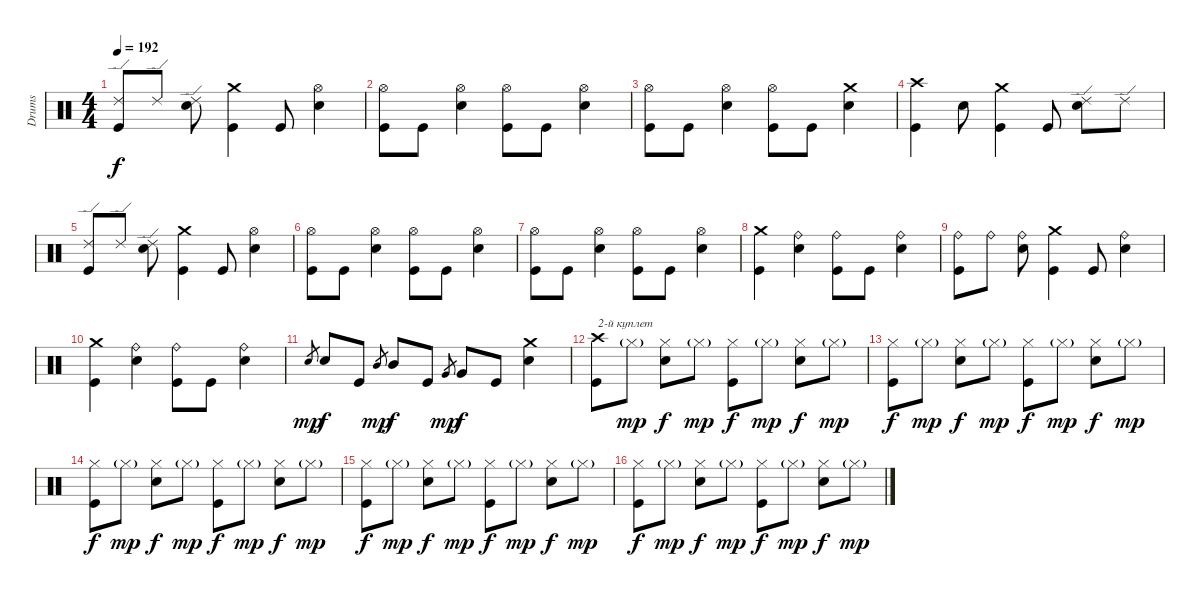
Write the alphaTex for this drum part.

\track ("Drums" "Drums") {instrument percussion}
\staff {score}
\articulation defaults
\ts (4 4)
\tempo 192
\clef neutral
\ks c
("Ride (edge) 2" "Kick (hit)").8{dy f} "Ride (edge) 2".8 ("Ride (edge) 2" "Electric Snare (hit)").8 ("Crash medium (hit)" "Kick (hit)").4 "Kick (hit)".8 ("Hi-Hat (open)" "Electric Snare (hit)").4 |
("Hi-Hat (open)" "Kick (hit)").8 "Kick (hit)".8 ("Hi-Hat (open)" "Electric Snare (hit)").4 ("Hi-Hat (open)" "Kick (hit)").8 "Kick (hit)".8 ("Hi-Hat (open)" "Electric Snare (hit)").4 |
("Hi-Hat (open)" "Kick (hit)").8 "Kick (hit)".8 ("Hi-Hat (open)" "Electric Snare (hit)").4 ("Hi-Hat (open)" "Kick (hit)").8 "Kick (hit)".8 ("Crash medium (hit)" "Electric Snare (hit)").4 |
("Crash high (hit)" "Kick (hit)").4 "Electric Snare (hit)".8 ("Crash medium (hit)" "Kick (hit)").4 "Kick (hit)".8 ("Ride (edge) 2" "Electric Snare (hit)").8 "Ride (edge) 2".8 |
("Ride (edge) 2" "Kick (hit)").8 "Ride (edge) 2".8 ("Ride (edge) 2" "Electric Snare (hit)").8 ("Crash medium (hit)" "Kick (hit)").4 "Kick (hit)".8 ("Hi-Hat (open)" "Electric Snare (hit)").4 |
("Hi-Hat (open)" "Kick (hit)").8 "Kick (hit)".8 ("Hi-Hat (open)" "Electric Snare (hit)").4 ("Hi-Hat (open)" "Kick (hit)").8 "Kick (hit)".8 ("Hi-Hat (open)" "Electric Snare (hit)").4 |
("Hi-Hat (open)" "Kick (hit)").8 "Kick (hit)".8 ("Hi-Hat (open)" "Electric Snare (hit)").4 ("Hi-Hat (open)" "Kick (hit)").8 "Kick (hit)".8 ("Hi-Hat (open)" "Electric Snare (hit)").4 |
("Crash medium (hit)" "Kick (hit)").4 ("Ride (bell)" "Electric Snare (hit)").4 ("Ride (bell)" "Kick (hit)").8 "Kick (hit)".8 ("Ride (bell)" "Electric Snare (hit)").4 |
("Ride (bell)" "Kick (hit)").8 "Ride (bell)".8 ("Ride (bell)" "Electric Snare (hit)").8 ("Crash medium (hit)" "Kick (hit)").4 "Kick (hit)".8 ("Ride (bell)" "Electric Snare (hit)").4 |
("Crash medium (hit)" "Kick (hit)").4 ("Ride (bell)" "Electric Snare (hit)").4 ("Ride (bell)" "Kick (hit)").8 "Kick (hit)".8 ("Ride (bell)" "Electric Snare (hit)").4 |
"Electric Snare (hit)".8{gr dy mp} "Electric Snare (hit)".8{dy f} "Kick (hit)".8 "Mid Tom (hit)".8{gr dy mp} "Mid Tom (hit)".8{dy f} "Kick (hit)".8 "Very Low Tom (hit)".8{gr dy mp} "Very Low Tom (hit)".8{dy f} "Kick (hit)".8 ("Crash medium (hit)" "Electric Snare (hit)").4 |
("Crash high (hit)" "Kick (hit)").8{txt "2-й куплет"} "Hi-Hat (closed)"{g}.8{dy mp} ("Hi-Hat (closed)" "Electric Snare (hit)").8{dy f} "Hi-Hat (closed)"{g}.8{dy mp} ("Hi-Hat (closed)" "Kick (hit)").8{dy f} "Hi-Hat (closed)"{g}.8{dy mp} ("Hi-Hat (closed)" "Electric Snare (hit)").8{dy f} "Hi-Hat (closed)"{g}.8{dy mp} |
("Hi-Hat (closed)" "Kick (hit)").8{dy f} "Hi-Hat (closed)"{g}.8{dy mp} ("Hi-Hat (closed)" "Electric Snare (hit)").8{dy f} "Hi-Hat (closed)"{g}.8{dy mp} ("Hi-Hat (closed)" "Kick (hit)").8{dy f} "Hi-Hat (closed)"{g}.8{dy mp} ("Hi-Hat (closed)" "Electric Snare (hit)").8{dy f} "Hi-Hat (closed)"{g}.8{dy mp} |
("Hi-Hat (closed)" "Kick (hit)").8{dy f} "Hi-Hat (closed)"{g}.8{dy mp} ("Hi-Hat (closed)" "Electric Snare (hit)").8{dy f} "Hi-Hat (closed)"{g}.8{dy mp} ("Hi-Hat (closed)" "Kick (hit)").8{dy f} "Hi-Hat (closed)"{g}.8{dy mp} ("Hi-Hat (closed)" "Electric Snare (hit)").8{dy f} "Hi-Hat (closed)"{g}.8{dy mp} |
("Hi-Hat (closed)" "Kick (hit)").8{dy f} "Hi-Hat (closed)"{g}.8{dy mp} ("Hi-Hat (closed)" "Electric Snare (hit)").8{dy f} "Hi-Hat (closed)"{g}.8{dy mp} ("Hi-Hat (closed)" "Kick (hit)").8{dy f} "Hi-Hat (closed)"{g}.8{dy mp} ("Hi-Hat (closed)" "Electric Snare (hit)").8{dy f} "Hi-Hat (closed)"{g}.8{dy mp} |
("Hi-Hat (closed)" "Kick (hit)").8{dy f} "Hi-Hat (closed)"{g}.8{dy mp} ("Hi-Hat (closed)" "Electric Snare (hit)").8{dy f} "Hi-Hat (closed)"{g}.8{dy mp} ("Hi-Hat (closed)" "Kick (hit)").8{dy f} "Hi-Hat (closed)"{g}.8{dy mp} ("Hi-Hat (closed)" "Electric Snare (hit)").8{dy f} "Hi-Hat (closed)"{g}.8{dy mp}
